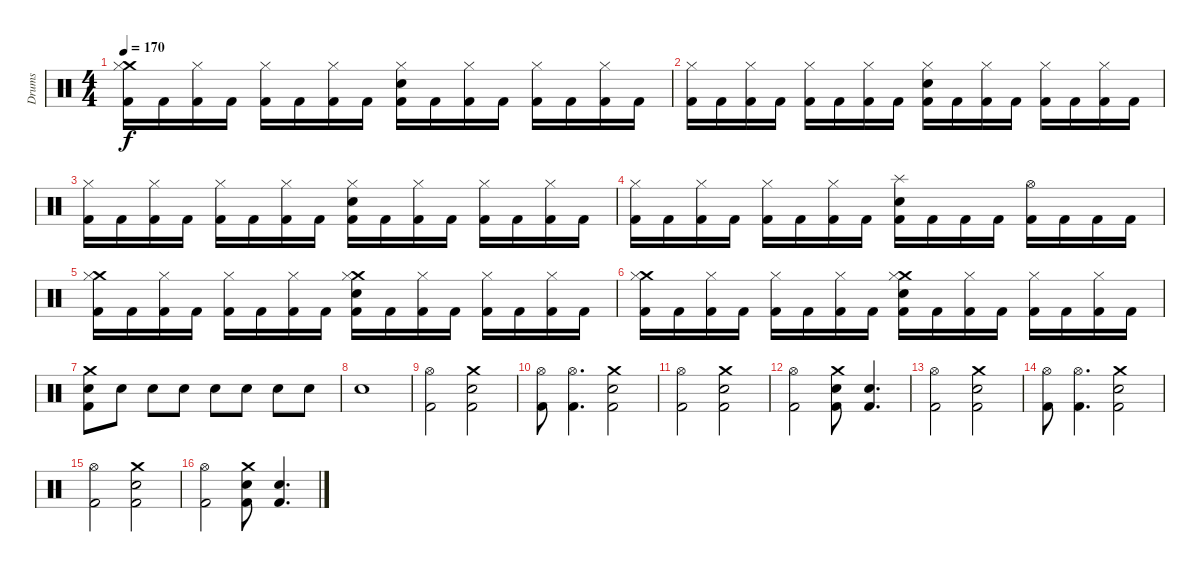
\track ("Drums" "Drums") {instrument percussion}
\staff {score}
\articulation defaults
\ts (4 4)
\tempo 170
\clef neutral
\ks c
("Crash medium (hit)" "Hi-Hat (closed)" "Kick (hit) 2").16{dy f} "Kick (hit) 2".16 ("Hi-Hat (closed)" "Kick (hit) 2").16 "Kick (hit) 2".16 ("Hi-Hat (closed)" "Kick (hit) 2").16 "Kick (hit) 2".16 ("Hi-Hat (closed)" "Kick (hit) 2").16 "Kick (hit) 2".16 ("Snare (hit) 2" "Hi-Hat (closed)" "Kick (hit) 2").16 "Kick (hit) 2".16 ("Hi-Hat (closed)" "Kick (hit) 2").16 "Kick (hit) 2".16 ("Hi-Hat (closed)" "Kick (hit) 2").16 "Kick (hit) 2".16 ("Hi-Hat (closed)" "Kick (hit) 2").16 "Kick (hit) 2".16 |
("Hi-Hat (closed)" "Kick (hit) 2").16 "Kick (hit) 2".16 ("Hi-Hat (closed)" "Kick (hit) 2").16 "Kick (hit) 2".16 ("Hi-Hat (closed)" "Kick (hit) 2").16 "Kick (hit) 2".16 ("Hi-Hat (closed)" "Kick (hit) 2").16 "Kick (hit) 2".16 ("Snare (hit) 2" "Hi-Hat (closed)" "Kick (hit) 2").16 "Kick (hit) 2".16 ("Hi-Hat (closed)" "Kick (hit) 2").16 "Kick (hit) 2".16 ("Hi-Hat (closed)" "Kick (hit) 2").16 "Kick (hit) 2".16 ("Hi-Hat (closed)" "Kick (hit) 2").16 "Kick (hit) 2".16 |
("Hi-Hat (closed)" "Kick (hit) 2").16 "Kick (hit) 2".16 ("Hi-Hat (closed)" "Kick (hit) 2").16 "Kick (hit) 2".16 ("Hi-Hat (closed)" "Kick (hit) 2").16 "Kick (hit) 2".16 ("Hi-Hat (closed)" "Kick (hit) 2").16 "Kick (hit) 2".16 ("Snare (hit) 2" "Hi-Hat (closed)" "Kick (hit) 2").16 "Kick (hit) 2".16 ("Hi-Hat (closed)" "Kick (hit) 2").16 "Kick (hit) 2".16 ("Hi-Hat (closed)" "Kick (hit) 2").16 "Kick (hit) 2".16 ("Hi-Hat (closed)" "Kick (hit) 2").16 "Kick (hit) 2".16 |
("Hi-Hat (closed)" "Kick (hit) 2").16 "Kick (hit) 2".16 ("Hi-Hat (closed)" "Kick (hit) 2").16 "Kick (hit) 2".16 ("Hi-Hat (closed)" "Kick (hit) 2").16 "Kick (hit) 2".16 ("Hi-Hat (closed)" "Kick (hit) 2").16 "Kick (hit) 2".16 ("Splash (hit)" "Snare (hit) 2" "Kick (hit) 2").16 "Kick (hit) 2".16 "Kick (hit) 2".16 "Kick (hit) 2".16 ("Hi-Hat (open)" "Kick (hit) 2").16 "Kick (hit) 2".16 "Kick (hit) 2".16 "Kick (hit) 2".16 |
("Crash medium (hit)" "Hi-Hat (closed)" "Kick (hit) 2").16 "Kick (hit) 2".16 ("Hi-Hat (closed)" "Kick (hit) 2").16 "Kick (hit) 2".16 ("Hi-Hat (closed)" "Kick (hit) 2").16 "Kick (hit) 2".16 ("Hi-Hat (closed)" "Kick (hit) 2").16 "Kick (hit) 2".16 ("Crash medium (hit)" "Snare (hit) 2" "Hi-Hat (closed)" "Kick (hit) 2").16 "Kick (hit) 2".16 ("Hi-Hat (closed)" "Kick (hit) 2").16 "Kick (hit) 2".16 ("Hi-Hat (closed)" "Kick (hit) 2").16 "Kick (hit) 2".16 ("Hi-Hat (closed)" "Kick (hit) 2").16 "Kick (hit) 2".16 |
("Crash medium (hit)" "Hi-Hat (closed)" "Kick (hit) 2").16 "Kick (hit) 2".16 ("Hi-Hat (closed)" "Kick (hit) 2").16 "Kick (hit) 2".16 ("Hi-Hat (closed)" "Kick (hit) 2").16 "Kick (hit) 2".16 ("Hi-Hat (closed)" "Kick (hit) 2").16 "Kick (hit) 2".16 ("Crash medium (hit)" "Snare (hit) 2" "Hi-Hat (closed)" "Kick (hit) 2").16 "Kick (hit) 2".16 ("Hi-Hat (closed)" "Kick (hit) 2").16 "Kick (hit) 2".16 ("Hi-Hat (closed)" "Kick (hit) 2").16 "Kick (hit) 2".16 ("Hi-Hat (closed)" "Kick (hit) 2").16 "Kick (hit) 2".16 |
("Crash medium (hit)" "Snare (hit) 2" "Kick (hit) 2").8 "Snare (hit) 2".8 "Snare (hit) 2".8 "Snare (hit) 2".8 "Snare (hit) 2".8 "Snare (hit) 2".8 "Snare (hit) 2".8 "Snare (hit) 2".8 |
"Snare (hit) 2".1 |
("Hi-Hat (open)" "Kick (hit) 2").2 ("Crash medium (hit)" "Snare (hit) 2" "Kick (hit) 2").2 |
("Hi-Hat (open)" "Kick (hit) 2").8 ("Hi-Hat (open)" "Kick (hit) 2").4{d} ("Crash medium (hit)" "Snare (hit) 2" "Kick (hit) 2").2 |
("Hi-Hat (open)" "Kick (hit) 2").2 ("Crash medium (hit)" "Snare (hit) 2" "Kick (hit) 2").2 |
("Hi-Hat (open)" "Kick (hit) 2").2 ("Crash medium (hit)" "Snare (hit) 2" "Kick (hit) 2").8 ("Snare (hit) 2" "Kick (hit) 2").4{d} |
("Hi-Hat (open)" "Kick (hit) 2").2 ("Crash medium (hit)" "Snare (hit) 2" "Kick (hit) 2").2 |
("Hi-Hat (open)" "Kick (hit) 2").8 ("Hi-Hat (open)" "Kick (hit) 2").4{d} ("Crash medium (hit)" "Snare (hit) 2" "Kick (hit) 2").2 |
("Hi-Hat (open)" "Kick (hit) 2").2 ("Crash medium (hit)" "Snare (hit) 2" "Kick (hit) 2").2 |
("Hi-Hat (open)" "Kick (hit) 2").2 ("Crash medium (hit)" "Snare (hit) 2" "Kick (hit) 2").8 ("Snare (hit) 2" "Kick (hit) 2").4{d}
